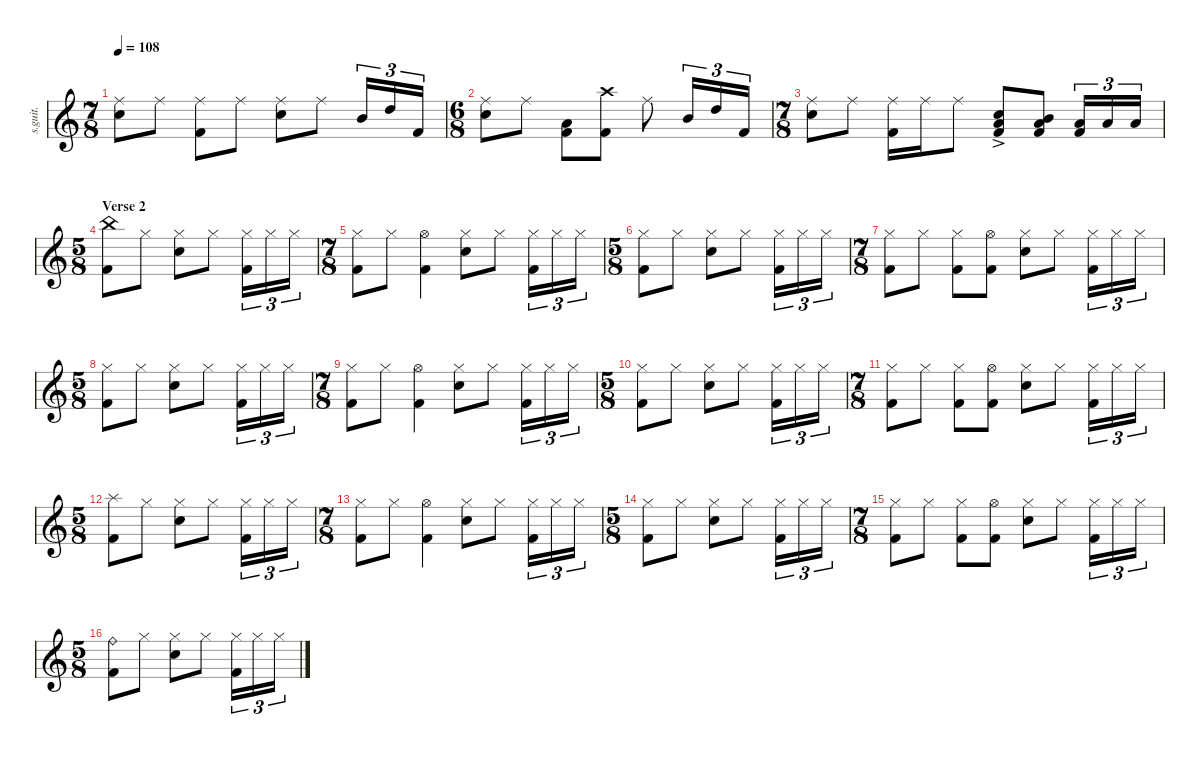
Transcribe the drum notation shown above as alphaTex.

\defaultSystemsLayout 4
\hideDynamics
\bracketExtendMode nobrackets
\track ("Danny Carey" "s.guit.") {instrument percussion}
\staff {score}
\articulation defaults
\ts (7 8)
\beaming (8 2 2 2 2)
\tempo 108
\clef g2
\ks c
("Ride (middle)" "Snare (hit) 2").8{lyrics (0 "") lyrics (1 "") lyrics (2 "") lyrics (3 "") lyrics (4 "") dy f} "Ride (middle)".8{lyrics (0 "") lyrics (1 "") lyrics (2 "") lyrics (3 "") lyrics (4 "")} ("Ride (middle)" "Kick (hit) 2").8{lyrics (0 "") lyrics (1 "") lyrics (2 "") lyrics (3 "") lyrics (4 "")} "Ride (middle)".8{lyrics (0 "") lyrics (1 "") lyrics (2 "") lyrics (3 "") lyrics (4 "")} ("Ride (middle)" "Snare (hit) 2").8{lyrics (0 "") lyrics (1 "") lyrics (2 "") lyrics (3 "") lyrics (4 "")} "Ride (middle)".8{lyrics (0 "") lyrics (1 "") lyrics (2 "") lyrics (3 "") lyrics (4 "")} "Mid Tom (hit)".16{tu (3 2) lyrics (0 "") lyrics (1 "") lyrics (2 "") lyrics (3 "") lyrics (4 "")} "High Tom (hit)".16{tu (3 2) lyrics (0 "") lyrics (1 "") lyrics (2 "") lyrics (3 "") lyrics (4 "")} "Kick (hit) 2".16{tu (3 2) lyrics (0 "") lyrics (1 "") lyrics (2 "") lyrics (3 "") lyrics (4 "")} |
\ts (6 8)
\beaming (8 2 2 2 2)
("Ride (middle)" "Snare (hit) 2").8{lyrics (0 "") lyrics (1 "") lyrics (2 "") lyrics (3 "") lyrics (4 "")} "Ride (middle)".8{lyrics (0 "") lyrics (1 "") lyrics (2 "") lyrics (3 "") lyrics (4 "")} ("Kick (hit) 2" "Low Floor Tom (hit)").8{lyrics (0 "") lyrics (1 "") lyrics (2 "") lyrics (3 "") lyrics (4 "")} ("Crash high (hit)" "Kick (hit) 2").8{lyrics (0 "") lyrics (1 "") lyrics (2 "") lyrics (3 "") lyrics (4 "")} "Ride (middle)".8{lyrics (0 "") lyrics (1 "") lyrics (2 "") lyrics (3 "") lyrics (4 "")} "Mid Tom (hit)".16{tu (3 2) lyrics (0 "") lyrics (1 "") lyrics (2 "") lyrics (3 "") lyrics (4 "")} "High Tom (hit)".16{tu (3 2) lyrics (0 "") lyrics (1 "") lyrics (2 "") lyrics (3 "") lyrics (4 "")} "Kick (hit) 2".16{tu (3 2) lyrics (0 "") lyrics (1 "") lyrics (2 "") lyrics (3 "") lyrics (4 "")} |
\ts (7 8)
\beaming (8 2 2 2 2)
("Ride (middle)" "Snare (hit) 2").8{lyrics (0 "") lyrics (1 "") lyrics (2 "") lyrics (3 "") lyrics (4 "")} "Ride (middle)".8{lyrics (0 "") lyrics (1 "") lyrics (2 "") lyrics (3 "") lyrics (4 "")} ("Ride (middle)" "Kick (hit) 2").16{lyrics (0 "") lyrics (1 "") lyrics (2 "") lyrics (3 "") lyrics (4 "")} "Ride (middle)".16{lyrics (0 "") lyrics (1 "") lyrics (2 "") lyrics (3 "") lyrics (4 "")} "Ride (middle)".8{lyrics (0 "") lyrics (1 "") lyrics (2 "") lyrics (3 "") lyrics (4 "")} ("Snare (hit) 2" "Kick (hit) 2"{ac} "Low Floor Tom (hit)").8{lyrics (0 "") lyrics (1 "") lyrics (2 "") lyrics (3 "") lyrics (4 "")} ("Kick (hit) 2" "Low Floor Tom (hit)" "Mid Tom (hit)").8{lyrics (0 "") lyrics (1 "") lyrics (2 "") lyrics (3 "") lyrics (4 "")} ("Kick (hit) 2" "Low Floor Tom (hit)").16{tu (3 2) lyrics (0 "") lyrics (1 "") lyrics (2 "") lyrics (3 "") lyrics (4 "")} "Low Floor Tom (hit)".16{tu (3 2) lyrics (0 "") lyrics (1 "") lyrics (2 "") lyrics (3 "") lyrics (4 "")} "Low Floor Tom (hit)".16{tu (3 2) lyrics (0 "") lyrics (1 "") lyrics (2 "") lyrics (3 "") lyrics (4 "")} |
\ts (5 8)
\beaming (8 2 2 2 2)
\section ("" "Verse 2")
("Kick (hit) 2" "China (hit)").8{lyrics (0 "") lyrics (1 "") lyrics (2 "") lyrics (3 "") lyrics (4 "")} "Hi-Hat (closed)".8{lyrics (0 "") lyrics (1 "") lyrics (2 "") lyrics (3 "") lyrics (4 "")} ("Hi-Hat (closed)" "Snare (hit) 2").8{lyrics (0 "") lyrics (1 "") lyrics (2 "") lyrics (3 "") lyrics (4 "")} "Hi-Hat (closed)".8{lyrics (0 "") lyrics (1 "") lyrics (2 "") lyrics (3 "") lyrics (4 "")} ("Hi-Hat (closed)" "Kick (hit) 2").16{tu (3 2) lyrics (0 "") lyrics (1 "") lyrics (2 "") lyrics (3 "") lyrics (4 "")} "Hi-Hat (closed)".16{tu (3 2) lyrics (0 "") lyrics (1 "") lyrics (2 "") lyrics (3 "") lyrics (4 "")} "Hi-Hat (closed)".16{tu (3 2) lyrics (0 "") lyrics (1 "") lyrics (2 "") lyrics (3 "") lyrics (4 "")} |
\ts (7 8)
\beaming (8 2 2 2 2)
("Hi-Hat (closed)" "Kick (hit) 2").8{lyrics (0 "") lyrics (1 "") lyrics (2 "") lyrics (3 "") lyrics (4 "")} "Hi-Hat (closed)".8{lyrics (0 "") lyrics (1 "") lyrics (2 "") lyrics (3 "") lyrics (4 "")} ("Hi-Hat (open)" "Kick (hit) 2").4{lyrics (0 "") lyrics (1 "") lyrics (2 "") lyrics (3 "") lyrics (4 "")} ("Hi-Hat (closed)" "Snare (hit) 2").8{lyrics (0 "") lyrics (1 "") lyrics (2 "") lyrics (3 "") lyrics (4 "")} "Hi-Hat (closed)".8{lyrics (0 "") lyrics (1 "") lyrics (2 "") lyrics (3 "") lyrics (4 "")} ("Hi-Hat (closed)" "Kick (hit) 2").16{tu (3 2) lyrics (0 "") lyrics (1 "") lyrics (2 "") lyrics (3 "") lyrics (4 "")} "Hi-Hat (closed)".16{tu (3 2) lyrics (0 "") lyrics (1 "") lyrics (2 "") lyrics (3 "") lyrics (4 "")} "Hi-Hat (closed)".16{tu (3 2) lyrics (0 "") lyrics (1 "") lyrics (2 "") lyrics (3 "") lyrics (4 "")} |
\ts (5 8)
\beaming (8 2 2 2 2)
("Hi-Hat (closed)" "Kick (hit) 2").8{lyrics (0 "") lyrics (1 "") lyrics (2 "") lyrics (3 "") lyrics (4 "")} "Hi-Hat (closed)".8{lyrics (0 "") lyrics (1 "") lyrics (2 "") lyrics (3 "") lyrics (4 "")} ("Hi-Hat (closed)" "Snare (hit) 2").8{lyrics (0 "") lyrics (1 "") lyrics (2 "") lyrics (3 "") lyrics (4 "")} "Hi-Hat (closed)".8{lyrics (0 "") lyrics (1 "") lyrics (2 "") lyrics (3 "") lyrics (4 "")} ("Hi-Hat (closed)" "Kick (hit) 2").16{tu (3 2) lyrics (0 "") lyrics (1 "") lyrics (2 "") lyrics (3 "") lyrics (4 "")} "Hi-Hat (closed)".16{tu (3 2) lyrics (0 "") lyrics (1 "") lyrics (2 "") lyrics (3 "") lyrics (4 "")} "Hi-Hat (closed)".16{tu (3 2) lyrics (0 "") lyrics (1 "") lyrics (2 "") lyrics (3 "") lyrics (4 "")} |
\ts (7 8)
\beaming (8 2 2 2 2)
("Hi-Hat (closed)" "Kick (hit) 2").8{lyrics (0 "") lyrics (1 "") lyrics (2 "") lyrics (3 "") lyrics (4 "")} "Hi-Hat (closed)".8{lyrics (0 "") lyrics (1 "") lyrics (2 "") lyrics (3 "") lyrics (4 "")} ("Hi-Hat (closed)" "Kick (hit) 2").8{lyrics (0 "") lyrics (1 "") lyrics (2 "") lyrics (3 "") lyrics (4 "")} ("Hi-Hat (open)" "Kick (hit) 2").8{lyrics (0 "") lyrics (1 "") lyrics (2 "") lyrics (3 "") lyrics (4 "")} ("Hi-Hat (closed)" "Snare (hit) 2").8{lyrics (0 "") lyrics (1 "") lyrics (2 "") lyrics (3 "") lyrics (4 "")} "Hi-Hat (closed)".8{lyrics (0 "") lyrics (1 "") lyrics (2 "") lyrics (3 "") lyrics (4 "")} ("Hi-Hat (closed)" "Kick (hit) 2").16{tu (3 2) lyrics (0 "") lyrics (1 "") lyrics (2 "") lyrics (3 "") lyrics (4 "")} "Hi-Hat (closed)".16{tu (3 2) lyrics (0 "") lyrics (1 "") lyrics (2 "") lyrics (3 "") lyrics (4 "")} "Hi-Hat (closed)".16{tu (3 2) lyrics (0 "") lyrics (1 "") lyrics (2 "") lyrics (3 "") lyrics (4 "")} |
\ts (5 8)
\beaming (8 2 2 2 2)
("Hi-Hat (closed)" "Kick (hit) 2").8{lyrics (0 "") lyrics (1 "") lyrics (2 "") lyrics (3 "") lyrics (4 "")} "Hi-Hat (closed)".8{lyrics (0 "") lyrics (1 "") lyrics (2 "") lyrics (3 "") lyrics (4 "")} ("Hi-Hat (closed)" "Snare (hit) 2").8{lyrics (0 "") lyrics (1 "") lyrics (2 "") lyrics (3 "") lyrics (4 "")} "Hi-Hat (closed)".8{lyrics (0 "") lyrics (1 "") lyrics (2 "") lyrics (3 "") lyrics (4 "")} ("Hi-Hat (closed)" "Kick (hit) 2").16{tu (3 2) lyrics (0 "") lyrics (1 "") lyrics (2 "") lyrics (3 "") lyrics (4 "")} "Hi-Hat (closed)".16{tu (3 2) lyrics (0 "") lyrics (1 "") lyrics (2 "") lyrics (3 "") lyrics (4 "")} "Hi-Hat (closed)".16{tu (3 2) lyrics (0 "") lyrics (1 "") lyrics (2 "") lyrics (3 "") lyrics (4 "")} |
\ts (7 8)
\beaming (8 2 2 2 2)
("Hi-Hat (closed)" "Kick (hit) 2").8{lyrics (0 "") lyrics (1 "") lyrics (2 "") lyrics (3 "") lyrics (4 "")} "Hi-Hat (closed)".8{lyrics (0 "") lyrics (1 "") lyrics (2 "") lyrics (3 "") lyrics (4 "")} ("Hi-Hat (open)" "Kick (hit) 2").4{lyrics (0 "") lyrics (1 "") lyrics (2 "") lyrics (3 "") lyrics (4 "")} ("Hi-Hat (closed)" "Snare (hit) 2").8{lyrics (0 "") lyrics (1 "") lyrics (2 "") lyrics (3 "") lyrics (4 "")} "Hi-Hat (closed)".8{lyrics (0 "") lyrics (1 "") lyrics (2 "") lyrics (3 "") lyrics (4 "")} ("Hi-Hat (closed)" "Kick (hit) 2").16{tu (3 2) lyrics (0 "") lyrics (1 "") lyrics (2 "") lyrics (3 "") lyrics (4 "")} "Hi-Hat (closed)".16{tu (3 2) lyrics (0 "") lyrics (1 "") lyrics (2 "") lyrics (3 "") lyrics (4 "")} "Hi-Hat (closed)".16{tu (3 2) lyrics (0 "") lyrics (1 "") lyrics (2 "") lyrics (3 "") lyrics (4 "")} |
\ts (5 8)
\beaming (8 2 2 2 2)
("Kick (hit) 2" "Hi-Hat (closed)").8{lyrics (0 "") lyrics (1 "") lyrics (2 "") lyrics (3 "") lyrics (4 "")} "Hi-Hat (closed)".8{lyrics (0 "") lyrics (1 "") lyrics (2 "") lyrics (3 "") lyrics (4 "")} ("Hi-Hat (closed)" "Snare (hit) 2").8{lyrics (0 "") lyrics (1 "") lyrics (2 "") lyrics (3 "") lyrics (4 "")} "Hi-Hat (closed)".8{lyrics (0 "") lyrics (1 "") lyrics (2 "") lyrics (3 "") lyrics (4 "")} ("Hi-Hat (closed)" "Kick (hit) 2").16{tu (3 2) lyrics (0 "") lyrics (1 "") lyrics (2 "") lyrics (3 "") lyrics (4 "")} "Hi-Hat (closed)".16{tu (3 2) lyrics (0 "") lyrics (1 "") lyrics (2 "") lyrics (3 "") lyrics (4 "")} "Hi-Hat (closed)".16{tu (3 2) lyrics (0 "") lyrics (1 "") lyrics (2 "") lyrics (3 "") lyrics (4 "")} |
\ts (7 8)
\beaming (8 2 2 2 2)
("Hi-Hat (closed)" "Kick (hit) 2").8{lyrics (0 "") lyrics (1 "") lyrics (2 "") lyrics (3 "") lyrics (4 "")} "Hi-Hat (closed)".8{lyrics (0 "") lyrics (1 "") lyrics (2 "") lyrics (3 "") lyrics (4 "")} ("Hi-Hat (closed)" "Kick (hit) 2").8{lyrics (0 "") lyrics (1 "") lyrics (2 "") lyrics (3 "") lyrics (4 "")} ("Hi-Hat (open)" "Kick (hit) 2").8{lyrics (0 "") lyrics (1 "") lyrics (2 "") lyrics (3 "") lyrics (4 "")} ("Hi-Hat (closed)" "Snare (hit) 2").8{lyrics (0 "") lyrics (1 "") lyrics (2 "") lyrics (3 "") lyrics (4 "")} "Hi-Hat (closed)".8{lyrics (0 "") lyrics (1 "") lyrics (2 "") lyrics (3 "") lyrics (4 "")} ("Hi-Hat (closed)" "Kick (hit) 2").16{tu (3 2) lyrics (0 "") lyrics (1 "") lyrics (2 "") lyrics (3 "") lyrics (4 "")} "Hi-Hat (closed)".16{tu (3 2) lyrics (0 "") lyrics (1 "") lyrics (2 "") lyrics (3 "") lyrics (4 "")} "Hi-Hat (closed)".16{tu (3 2) lyrics (0 "") lyrics (1 "") lyrics (2 "") lyrics (3 "") lyrics (4 "")} |
\ts (5 8)
\beaming (8 2 2 2 2)
("Kick (hit) 2" "Splash (hit)").8{lyrics (0 "") lyrics (1 "") lyrics (2 "") lyrics (3 "") lyrics (4 "")} "Hi-Hat (closed)".8{lyrics (0 "") lyrics (1 "") lyrics (2 "") lyrics (3 "") lyrics (4 "")} ("Hi-Hat (closed)" "Snare (hit) 2").8{lyrics (0 "") lyrics (1 "") lyrics (2 "") lyrics (3 "") lyrics (4 "")} "Hi-Hat (closed)".8{lyrics (0 "") lyrics (1 "") lyrics (2 "") lyrics (3 "") lyrics (4 "")} ("Hi-Hat (closed)" "Kick (hit) 2").16{tu (3 2) lyrics (0 "") lyrics (1 "") lyrics (2 "") lyrics (3 "") lyrics (4 "")} "Hi-Hat (closed)".16{tu (3 2) lyrics (0 "") lyrics (1 "") lyrics (2 "") lyrics (3 "") lyrics (4 "")} "Hi-Hat (closed)".16{tu (3 2) lyrics (0 "") lyrics (1 "") lyrics (2 "") lyrics (3 "") lyrics (4 "")} |
\ts (7 8)
\beaming (8 2 2 2 2)
("Hi-Hat (closed)" "Kick (hit) 2").8{lyrics (0 "") lyrics (1 "") lyrics (2 "") lyrics (3 "") lyrics (4 "")} "Hi-Hat (closed)".8{lyrics (0 "") lyrics (1 "") lyrics (2 "") lyrics (3 "") lyrics (4 "")} ("Hi-Hat (open)" "Kick (hit) 2").4{lyrics (0 "") lyrics (1 "") lyrics (2 "") lyrics (3 "") lyrics (4 "")} ("Hi-Hat (closed)" "Snare (hit) 2").8{lyrics (0 "") lyrics (1 "") lyrics (2 "") lyrics (3 "") lyrics (4 "")} "Hi-Hat (closed)".8{lyrics (0 "") lyrics (1 "") lyrics (2 "") lyrics (3 "") lyrics (4 "")} ("Hi-Hat (closed)" "Kick (hit) 2").16{tu (3 2) lyrics (0 "") lyrics (1 "") lyrics (2 "") lyrics (3 "") lyrics (4 "")} "Hi-Hat (closed)".16{tu (3 2) lyrics (0 "") lyrics (1 "") lyrics (2 "") lyrics (3 "") lyrics (4 "")} "Hi-Hat (closed)".16{tu (3 2) lyrics (0 "") lyrics (1 "") lyrics (2 "") lyrics (3 "") lyrics (4 "")} |
\ts (5 8)
\beaming (8 2 2 2 2)
("Kick (hit) 2" "Hi-Hat (closed)").8{lyrics (0 "") lyrics (1 "") lyrics (2 "") lyrics (3 "") lyrics (4 "")} "Hi-Hat (closed)".8{lyrics (0 "") lyrics (1 "") lyrics (2 "") lyrics (3 "") lyrics (4 "")} ("Hi-Hat (closed)" "Snare (hit) 2").8{lyrics (0 "") lyrics (1 "") lyrics (2 "") lyrics (3 "") lyrics (4 "")} "Hi-Hat (closed)".8{lyrics (0 "") lyrics (1 "") lyrics (2 "") lyrics (3 "") lyrics (4 "")} ("Hi-Hat (closed)" "Kick (hit) 2").16{tu (3 2) lyrics (0 "") lyrics (1 "") lyrics (2 "") lyrics (3 "") lyrics (4 "")} "Hi-Hat (closed)".16{tu (3 2) lyrics (0 "") lyrics (1 "") lyrics (2 "") lyrics (3 "") lyrics (4 "")} "Hi-Hat (closed)".16{tu (3 2) lyrics (0 "") lyrics (1 "") lyrics (2 "") lyrics (3 "") lyrics (4 "")} |
\ts (7 8)
\beaming (8 2 2 2 2)
("Kick (hit) 2" "Hi-Hat (closed)").8{lyrics (0 "") lyrics (1 "") lyrics (2 "") lyrics (3 "") lyrics (4 "")} "Hi-Hat (closed)".8{lyrics (0 "") lyrics (1 "") lyrics (2 "") lyrics (3 "") lyrics (4 "")} ("Hi-Hat (closed)" "Kick (hit) 2").8{lyrics (0 "") lyrics (1 "") lyrics (2 "") lyrics (3 "") lyrics (4 "")} ("Hi-Hat (open)" "Kick (hit) 2").8{lyrics (0 "") lyrics (1 "") lyrics (2 "") lyrics (3 "") lyrics (4 "")} ("Hi-Hat (closed)" "Snare (hit) 2").8{lyrics (0 "") lyrics (1 "") lyrics (2 "") lyrics (3 "") lyrics (4 "")} "Hi-Hat (closed)".8{lyrics (0 "") lyrics (1 "") lyrics (2 "") lyrics (3 "") lyrics (4 "")} ("Hi-Hat (closed)" "Kick (hit) 2").16{tu (3 2) lyrics (0 "") lyrics (1 "") lyrics (2 "") lyrics (3 "") lyrics (4 "")} "Hi-Hat (closed)".16{tu (3 2) lyrics (0 "") lyrics (1 "") lyrics (2 "") lyrics (3 "") lyrics (4 "")} "Hi-Hat (closed)".16{tu (3 2) lyrics (0 "") lyrics (1 "") lyrics (2 "") lyrics (3 "") lyrics (4 "")} |
\ts (5 8)
\beaming (8 2 2 2 2)
("Ride (bell)" "Kick (hit) 2").8{lyrics (0 "") lyrics (1 "") lyrics (2 "") lyrics (3 "") lyrics (4 "")} "Hi-Hat (closed)".8{lyrics (0 "") lyrics (1 "") lyrics (2 "") lyrics (3 "") lyrics (4 "")} ("Hi-Hat (closed)" "Snare (hit) 2").8{lyrics (0 "") lyrics (1 "") lyrics (2 "") lyrics (3 "") lyrics (4 "")} "Hi-Hat (closed)".8{lyrics (0 "") lyrics (1 "") lyrics (2 "") lyrics (3 "") lyrics (4 "")} ("Hi-Hat (closed)" "Kick (hit) 2").16{tu (3 2) lyrics (0 "") lyrics (1 "") lyrics (2 "") lyrics (3 "") lyrics (4 "")} "Hi-Hat (closed)".16{tu (3 2) lyrics (0 "") lyrics (1 "") lyrics (2 "") lyrics (3 "") lyrics (4 "")} "Hi-Hat (closed)".16{tu (3 2) lyrics (0 "") lyrics (1 "") lyrics (2 "") lyrics (3 "") lyrics (4 "")}
